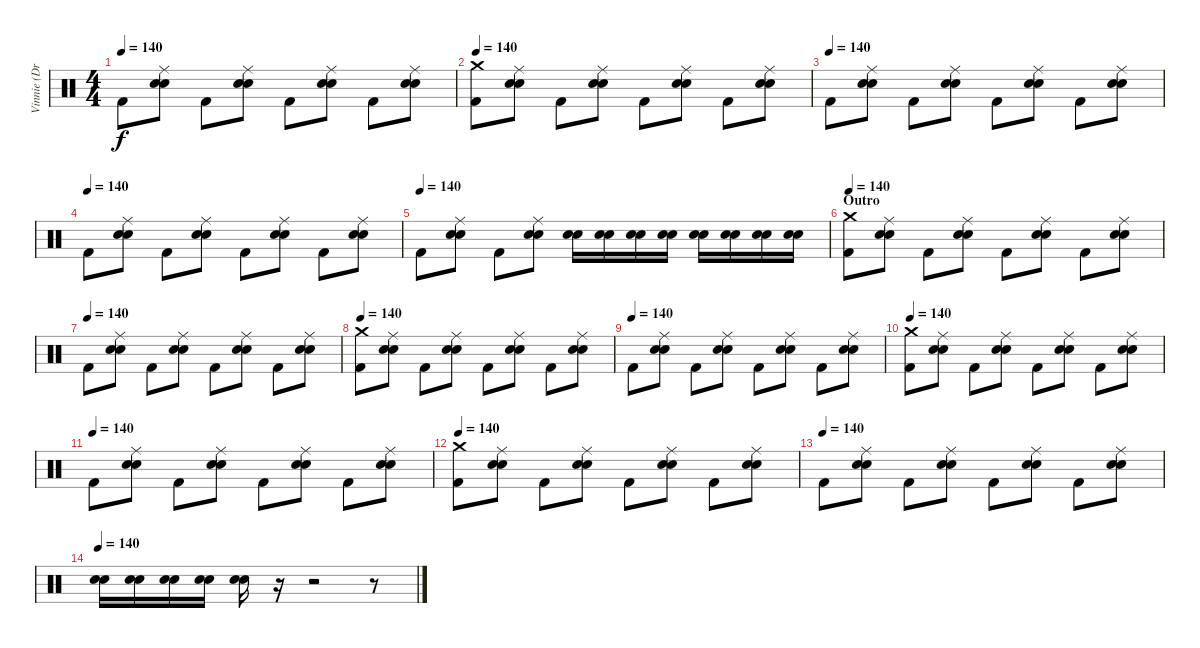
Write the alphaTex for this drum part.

\track ("Vinnie (Drums)" "Vinnie (Dr") {instrument percussion}
\staff {score}
\articulation defaults
\ts (4 4)
\tempo 140
\clef neutral
\ks c "Kick (hit) 2".8{dy f}
("Snare (hit) 2" "Electric Snare (hit)" "Ride (middle)").8 "Kick (hit) 2".8 ("Snare (hit) 2" "Electric Snare (hit)" "Ride (middle)").8 "Kick (hit) 2".8 ("Snare (hit) 2" "Electric Snare (hit)" "Ride (middle)").8 "Kick (hit) 2".8 ("Snare (hit) 2" "Electric Snare (hit)" "Ride (middle)").8 |
\tempo 140
("Kick (hit) 2" "Crash medium (hit)").8 ("Snare (hit) 2" "Electric Snare (hit)" "Ride (middle)").8 "Kick (hit) 2".8 ("Snare (hit) 2" "Electric Snare (hit)" "Ride (middle)").8 "Kick (hit) 2".8 ("Snare (hit) 2" "Electric Snare (hit)" "Ride (middle)").8 "Kick (hit) 2".8 ("Snare (hit) 2" "Electric Snare (hit)" "Ride (middle)").8 |
\tempo (140)
"Kick (hit) 2".8 ("Snare (hit) 2" "Electric Snare (hit)" "Ride (middle)").8 "Kick (hit) 2".8 ("Snare (hit) 2" "Electric Snare (hit)" "Ride (middle)").8 "Kick (hit) 2".8 ("Snare (hit) 2" "Electric Snare (hit)" "Ride (middle)").8 "Kick (hit) 2".8 ("Snare (hit) 2" "Electric Snare (hit)" "Ride (middle)").8 |
\tempo (140)
"Kick (hit) 2".8 ("Snare (hit) 2" "Electric Snare (hit)" "Ride (middle)").8 "Kick (hit) 2".8 ("Snare (hit) 2" "Electric Snare (hit)" "Ride (middle)").8 "Kick (hit) 2".8 ("Snare (hit) 2" "Electric Snare (hit)" "Ride (middle)").8 "Kick (hit) 2".8 ("Snare (hit) 2" "Electric Snare (hit)" "Ride (middle)").8 |
\tempo (140)
"Kick (hit) 2".8 ("Snare (hit) 2" "Electric Snare (hit)" "Ride (middle)").8 "Kick (hit) 2".8 ("Snare (hit) 2" "Electric Snare (hit)" "Ride (middle)").8 ("Snare (hit) 2" "Electric Snare (hit)").16 ("Snare (hit) 2" "Electric Snare (hit)").16 ("Snare (hit) 2" "Electric Snare (hit)").16 ("Snare (hit) 2" "Electric Snare (hit)").16 ("Snare (hit) 2" "Electric Snare (hit)").16 ("Snare (hit) 2" "Electric Snare (hit)").16 ("Snare (hit) 2" "Electric Snare (hit)").16 ("Snare (hit) 2" "Electric Snare (hit)").16 |
\section ("" "Outro")
\tempo 140
("Kick (hit) 2" "Crash medium (hit)").8 ("Snare (hit) 2" "Electric Snare (hit)" "Ride (middle)").8 "Kick (hit) 2".8 ("Snare (hit) 2" "Electric Snare (hit)" "Ride (middle)").8 "Kick (hit) 2".8 ("Snare (hit) 2" "Electric Snare (hit)" "Ride (middle)").8 "Kick (hit) 2".8 ("Snare (hit) 2" "Electric Snare (hit)" "Ride (middle)").8 |
\tempo (140)
"Kick (hit) 2".8 ("Snare (hit) 2" "Electric Snare (hit)" "Ride (middle)").8 "Kick (hit) 2".8 ("Snare (hit) 2" "Electric Snare (hit)" "Ride (middle)").8 "Kick (hit) 2".8 ("Snare (hit) 2" "Electric Snare (hit)" "Ride (middle)").8 "Kick (hit) 2".8 ("Snare (hit) 2" "Electric Snare (hit)" "Ride (middle)").8 |
\tempo 140
("Kick (hit) 2" "Crash medium (hit)").8 ("Snare (hit) 2" "Electric Snare (hit)" "Ride (middle)").8 "Kick (hit) 2".8 ("Snare (hit) 2" "Electric Snare (hit)" "Ride (middle)").8 "Kick (hit) 2".8 ("Snare (hit) 2" "Electric Snare (hit)" "Ride (middle)").8 "Kick (hit) 2".8 ("Snare (hit) 2" "Electric Snare (hit)" "Ride (middle)").8 |
\tempo (140)
"Kick (hit) 2".8 ("Snare (hit) 2" "Electric Snare (hit)" "Ride (middle)").8 "Kick (hit) 2".8 ("Snare (hit) 2" "Electric Snare (hit)" "Ride (middle)").8 "Kick (hit) 2".8 ("Snare (hit) 2" "Electric Snare (hit)" "Ride (middle)").8 "Kick (hit) 2".8 ("Snare (hit) 2" "Electric Snare (hit)" "Ride (middle)").8 |
\tempo 140
("Kick (hit) 2" "Crash medium (hit)").8 ("Snare (hit) 2" "Electric Snare (hit)" "Ride (middle)").8 "Kick (hit) 2".8 ("Snare (hit) 2" "Electric Snare (hit)" "Ride (middle)").8 "Kick (hit) 2".8 ("Snare (hit) 2" "Electric Snare (hit)" "Ride (middle)").8 "Kick (hit) 2".8 ("Snare (hit) 2" "Electric Snare (hit)" "Ride (middle)").8 |
\tempo (140)
"Kick (hit) 2".8 ("Snare (hit) 2" "Electric Snare (hit)" "Ride (middle)").8 "Kick (hit) 2".8 ("Snare (hit) 2" "Electric Snare (hit)" "Ride (middle)").8 "Kick (hit) 2".8 ("Snare (hit) 2" "Electric Snare (hit)" "Ride (middle)").8 "Kick (hit) 2".8 ("Snare (hit) 2" "Electric Snare (hit)" "Ride (middle)").8 |
\tempo 140
("Kick (hit) 2" "Crash medium (hit)").8 ("Snare (hit) 2" "Electric Snare (hit)" "Ride (middle)").8 "Kick (hit) 2".8 ("Snare (hit) 2" "Electric Snare (hit)" "Ride (middle)").8 "Kick (hit) 2".8 ("Snare (hit) 2" "Electric Snare (hit)" "Ride (middle)").8 "Kick (hit) 2".8 ("Snare (hit) 2" "Electric Snare (hit)" "Ride (middle)").8 |
\tempo (140)
"Kick (hit) 2".8 ("Snare (hit) 2" "Electric Snare (hit)" "Ride (middle)").8 "Kick (hit) 2".8 ("Snare (hit) 2" "Electric Snare (hit)" "Ride (middle)").8 "Kick (hit) 2".8 ("Snare (hit) 2" "Electric Snare (hit)" "Ride (middle)").8 "Kick (hit) 2".8 ("Snare (hit) 2" "Electric Snare (hit)" "Ride (middle)").8 |
\tempo 140
("Snare (hit) 2" "Electric Snare (hit)").16 ("Snare (hit) 2" "Electric Snare (hit)").16 ("Snare (hit) 2" "Electric Snare (hit)").16 ("Snare (hit) 2" "Electric Snare (hit)").16 ("Snare (hit) 2" "Electric Snare (hit)").16 r.16 r.2 r.8
